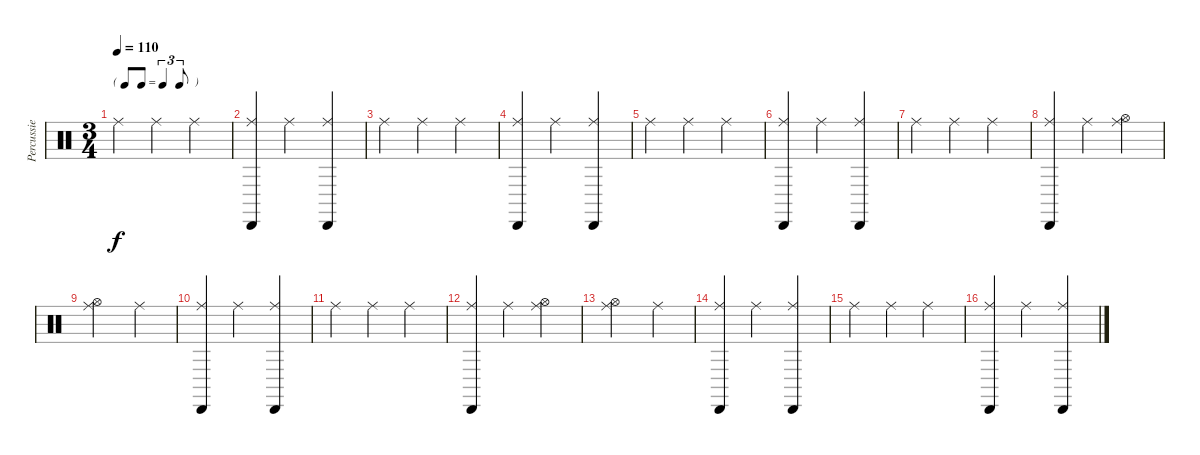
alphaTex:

\track ("Percussie" "Percussie") {instrument percussion}
\staff {score}
\articulation defaults
\ts (3 4)
\tf triplet8th
\tempo 110
\clef neutral
\ks c "Ride (middle)".4{dy f} "Ride (middle)".4 "Ride (middle)".4
|
("Cabasa (hit)" "Ride (middle)").4 "Ride (middle)".4 ("Cabasa (hit)" "Ride (middle)").4 |
"Ride (middle)".4 "Ride (middle)".4 "Ride (middle)".4 |
("Cabasa (hit)" "Ride (middle)").4 "Ride (middle)".4 ("Cabasa (hit)" "Ride (middle)").4 |
"Ride (middle)".4 "Ride (middle)".4 "Ride (middle)".4 |
("Cabasa (hit)" "Ride (middle)").4 "Ride (middle)".4 ("Cabasa (hit)" "Ride (middle)").4 |
"Ride (middle)".4 "Ride (middle)".4 "Ride (middle)".4 |
("Cabasa (hit)" "Ride (middle)").4 "Ride (middle)".4 ("Hi-Hat (open)" "Ride (middle)").4 |
("Hi-Hat (open)" "Ride (middle)").2 "Ride (middle)".4 |
("Cabasa (hit)" "Ride (middle)").4 "Ride (middle)".4 ("Cabasa (hit)" "Ride (middle)").4 |
"Ride (middle)".4 "Ride (middle)".4 "Ride (middle)".4 |
("Cabasa (hit)" "Ride (middle)").4 "Ride (middle)".4 ("Hi-Hat (open)" "Ride (middle)").4 |
("Hi-Hat (open)" "Ride (middle)").2 "Ride (middle)".4 |
("Cabasa (hit)" "Ride (middle)").4 "Ride (middle)".4 ("Cabasa (hit)" "Ride (middle)").4 |
"Ride (middle)".4 "Ride (middle)".4 "Ride (middle)".4 |
("Cabasa (hit)" "Ride (middle)").4 "Ride (middle)".4 ("Cabasa (hit)" "Ride (middle)").4
